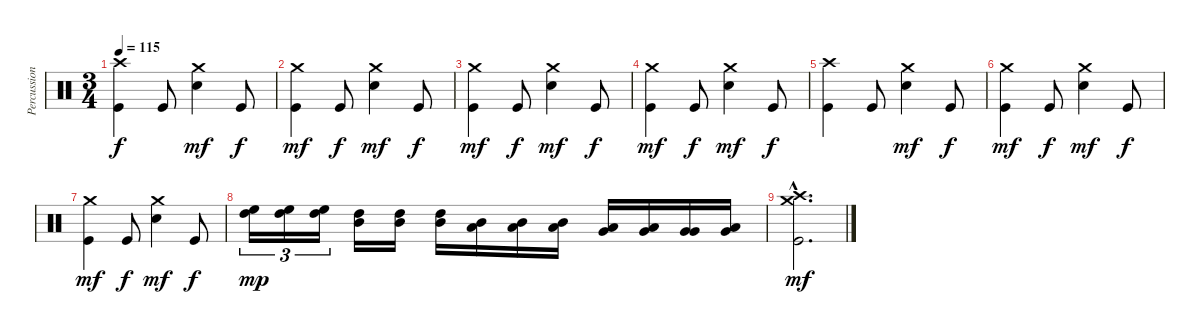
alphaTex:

\track ("Percussions" "Percussion") {instrument percussion}
\staff {score}
\articulation defaults
\ts (3 4)
\tempo 115
\clef neutral
\ks c
("Kick (hit)" "Crash high (hit)").4{dy f} "Kick (hit)".8 ("Electric Snare (hit)" "Crash medium (hit)").4{dy mf} "Kick (hit)".8{dy f} |
("Kick (hit)" "Crash medium (hit)").4{dy mf} "Kick (hit)".8{dy f} ("Electric Snare (hit)" "Crash medium (hit)").4{dy mf} "Kick (hit)".8{dy f} |
("Kick (hit)" "Crash medium (hit)").4{dy mf} "Kick (hit)".8{dy f} ("Electric Snare (hit)" "Crash medium (hit)").4{dy mf} "Kick (hit)".8{dy f} |
("Kick (hit)" "Crash medium (hit)").4{dy mf} "Kick (hit)".8{dy f} ("Electric Snare (hit)" "Crash medium (hit)").4{dy mf} "Kick (hit)".8{dy f} |
("Kick (hit)" "Crash high (hit)").4 "Kick (hit)".8 ("Electric Snare (hit)" "Crash medium (hit)").4{dy mf} "Kick (hit)".8{dy f} |
("Kick (hit)" "Crash medium (hit)").4{dy mf} "Kick (hit)".8{dy f} ("Electric Snare (hit)" "Crash medium (hit)").4{dy mf} "Kick (hit)".8{dy f} |
("Kick (hit)" "Crash medium (hit)").4{dy mf} "Kick (hit)".8{dy f} ("Electric Snare (hit)" "Crash medium (hit)").4{dy mf} "Kick (hit)".8{dy f} |
("High Tom (hit)" "High Floor Tom (hit)").16{tu (3 2) dy mp} ("High Tom (hit)" "High Floor Tom (hit)").16{tu (3 2)} ("High Tom (hit)" "High Floor Tom (hit)").16{tu (3 2)} ("Mid Tom (hit)" "High Tom (hit)").16 ("Mid Tom (hit)" "High Tom (hit)").16 ("Mid Tom (hit)" "High Tom (hit)").16 ("Low Tom (hit)" "Mid Tom (hit)").16 ("Low Tom (hit)" "Mid Tom (hit)").16 ("Low Tom (hit)" "Mid Tom (hit)").16 ("Very Low Tom (hit)" "Low Tom (hit)").16 ("Very Low Tom (hit)" "Low Tom (hit)").16 ("Very Low Tom (hit)" "Very Low Tom (hit)").16 ("Low Floor Tom (hit)" "Very Low Tom (hit)").16 |
("Kick (hit)"{hac} "Crash high (hit)"{hac} "Crash medium (hit)"{hac}).2{d dy mf}
